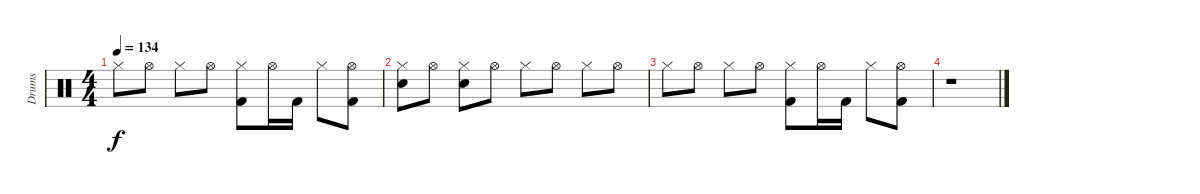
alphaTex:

\track ("Drums" "Drums") {instrument percussion}
\staff {score}
\articulation defaults
\ts (4 4)
\tempo 134
\clef neutral
\ks c "Hi-Hat (closed)".8{dy f} "Hi-Hat (open)".8 "Hi-Hat (closed)".8 "Hi-Hat (open)".8
("Hi-Hat (closed)" "Kick (hit) 2").8 "Hi-Hat (open)".16 "Kick (hit) 2".16 "Hi-Hat (closed)".8 ("Hi-Hat (open)" "Kick (hit) 2").8 |
("Hi-Hat (closed)" "Snare (hit) 2").8 "Hi-Hat (open)".8 ("Hi-Hat (closed)" "Snare (hit) 2").8 "Hi-Hat (open)".8 "Hi-Hat (closed)".8 "Hi-Hat (open)".8 "Hi-Hat (closed)".8 "Hi-Hat (open)".8 |
"Hi-Hat (closed)".8 "Hi-Hat (open)".8 "Hi-Hat (closed)".8 "Hi-Hat (open)".8 ("Hi-Hat (closed)" "Kick (hit) 2").8 "Hi-Hat (open)".16 "Kick (hit) 2".16 "Hi-Hat (closed)".8 ("Hi-Hat (open)" "Kick (hit) 2").8 |
r.1
